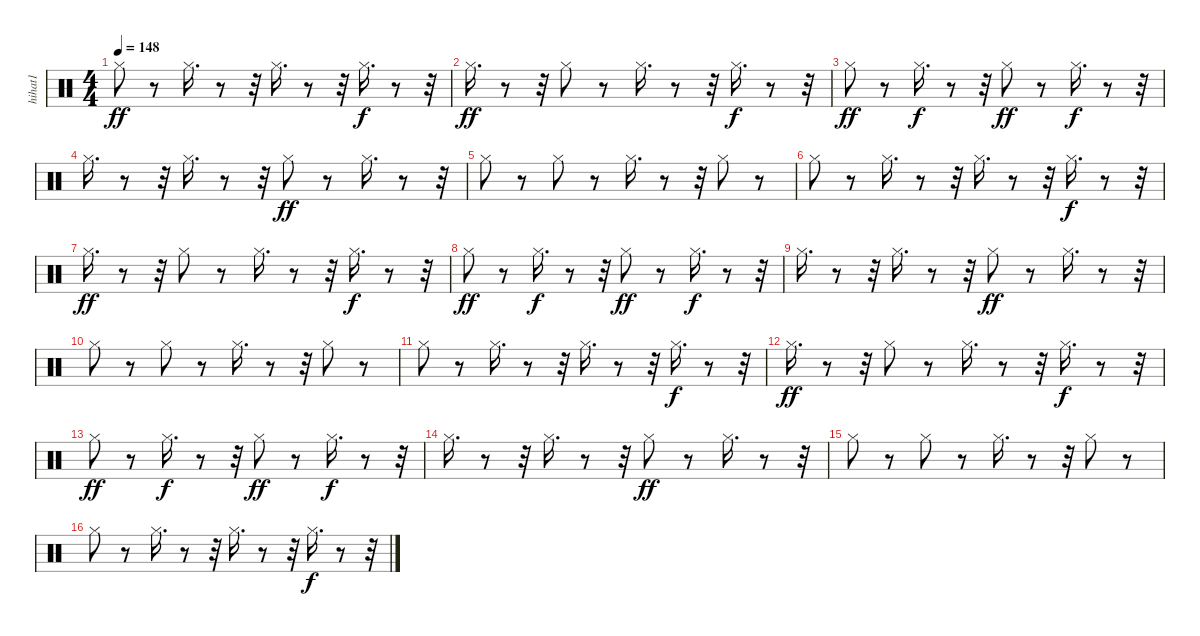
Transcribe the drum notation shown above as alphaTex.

\track ("hihat1              " "hihat1    ") {instrument percussion}
\staff {score}
\articulation defaults
\ts (4 4)
\tempo 148
\clef neutral
\ks c "Hi-Hat (closed)".8{dy ff}
r.8 "Hi-Hat (closed)".16{d} r.8 r.32 "Hi-Hat (closed)".16{d} r.8 r.32 "Hi-Hat (closed)".16{d dy f} r.8 r.32 |
"Hi-Hat (closed)".16{d dy ff} r.8 r.32 "Hi-Hat (closed)".8 r.8 "Hi-Hat (closed)".16{d} r.8 r.32 "Hi-Hat (closed)".16{d dy f} r.8 r.32 |
"Hi-Hat (closed)".8{dy ff} r.8 "Hi-Hat (closed)".16{d dy f} r.8 r.32 "Hi-Hat (closed)".8{dy ff} r.8 "Hi-Hat (closed)".16{d dy f} r.8 r.32 |
"Hi-Hat (closed)".16{d} r.8 r.32 "Hi-Hat (closed)".16{d} r.8 r.32 "Hi-Hat (closed)".8{dy ff} r.8 "Hi-Hat (closed)".16{d} r.8 r.32 |
"Hi-Hat (closed)".8 r.8 "Hi-Hat (closed)".8 r.8 "Hi-Hat (closed)".16{d} r.8 r.32 "Hi-Hat (closed)".8 r.8 |
"Hi-Hat (closed)".8 r.8 "Hi-Hat (closed)".16{d} r.8 r.32 "Hi-Hat (closed)".16{d} r.8 r.32 "Hi-Hat (closed)".16{d dy f} r.8 r.32 |
"Hi-Hat (closed)".16{d dy ff} r.8 r.32 "Hi-Hat (closed)".8 r.8 "Hi-Hat (closed)".16{d} r.8 r.32 "Hi-Hat (closed)".16{d dy f} r.8 r.32 |
"Hi-Hat (closed)".8{dy ff} r.8 "Hi-Hat (closed)".16{d dy f} r.8 r.32 "Hi-Hat (closed)".8{dy ff} r.8 "Hi-Hat (closed)".16{d dy f} r.8 r.32 |
"Hi-Hat (closed)".16{d} r.8 r.32 "Hi-Hat (closed)".16{d} r.8 r.32 "Hi-Hat (closed)".8{dy ff} r.8 "Hi-Hat (closed)".16{d} r.8 r.32 |
"Hi-Hat (closed)".8 r.8 "Hi-Hat (closed)".8 r.8 "Hi-Hat (closed)".16{d} r.8 r.32 "Hi-Hat (closed)".8 r.8 |
"Hi-Hat (closed)".8 r.8 "Hi-Hat (closed)".16{d} r.8 r.32 "Hi-Hat (closed)".16{d} r.8 r.32 "Hi-Hat (closed)".16{d dy f} r.8 r.32 |
"Hi-Hat (closed)".16{d dy ff} r.8 r.32 "Hi-Hat (closed)".8 r.8 "Hi-Hat (closed)".16{d} r.8 r.32 "Hi-Hat (closed)".16{d dy f} r.8 r.32 |
"Hi-Hat (closed)".8{dy ff} r.8 "Hi-Hat (closed)".16{d dy f} r.8 r.32 "Hi-Hat (closed)".8{dy ff} r.8 "Hi-Hat (closed)".16{d dy f} r.8 r.32 |
"Hi-Hat (closed)".16{d} r.8 r.32 "Hi-Hat (closed)".16{d} r.8 r.32 "Hi-Hat (closed)".8{dy ff} r.8 "Hi-Hat (closed)".16{d} r.8 r.32 |
"Hi-Hat (closed)".8 r.8 "Hi-Hat (closed)".8 r.8 "Hi-Hat (closed)".16{d} r.8 r.32 "Hi-Hat (closed)".8 r.8 |
"Hi-Hat (closed)".8 r.8 "Hi-Hat (closed)".16{d} r.8 r.32 "Hi-Hat (closed)".16{d} r.8 r.32 "Hi-Hat (closed)".16{d dy f} r.8 r.32
